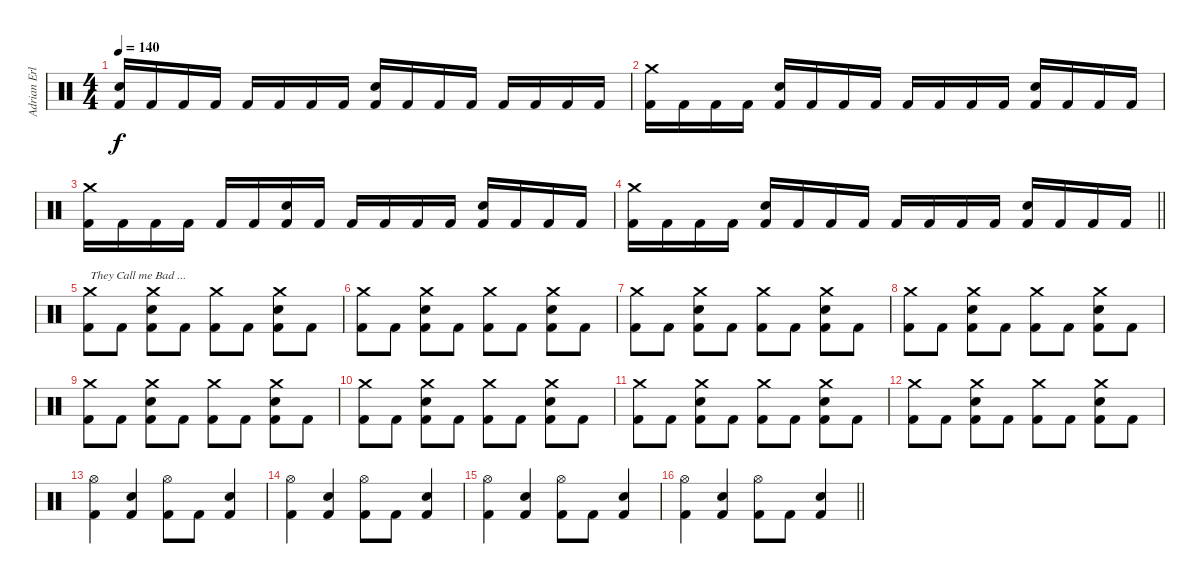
\track ("Adrian Erlandsson" "Adrian Erl") {instrument percussion}
\staff {score}
\articulation defaults
\ts (4 4)
\tempo 140
\clef neutral
\ks c
("Kick (hit) 2" "Electric Snare (hit)").16{dy f} "Kick (hit) 2".16 "Kick (hit) 2".16 "Kick (hit) 2".16 "Kick (hit) 2".16 "Kick (hit) 2".16 "Kick (hit) 2".16 "Kick (hit) 2".16 ("Kick (hit) 2" "Electric Snare (hit)").16 "Kick (hit) 2".16 "Kick (hit) 2".16 "Kick (hit) 2".16 "Kick (hit) 2".16 "Kick (hit) 2".16 "Kick (hit) 2".16 "Kick (hit) 2".16 |
("Kick (hit) 2" "Crash medium (hit)").16 "Kick (hit) 2".16 "Kick (hit) 2".16 "Kick (hit) 2".16 ("Kick (hit) 2" "Electric Snare (hit)").16 "Kick (hit) 2".16 "Kick (hit) 2".16 "Kick (hit) 2".16 "Kick (hit) 2".16 "Kick (hit) 2".16 "Kick (hit) 2".16 "Kick (hit) 2".16 ("Kick (hit) 2" "Electric Snare (hit)").16 "Kick (hit) 2".16 "Kick (hit) 2".16 "Kick (hit) 2".16 |
("Kick (hit) 2" "Crash medium (hit)").16 "Kick (hit) 2".16 "Kick (hit) 2".16 "Kick (hit) 2".16 "Kick (hit) 2".16 "Kick (hit) 2".16 ("Kick (hit) 2" "Electric Snare (hit)").16 "Kick (hit) 2".16 "Kick (hit) 2".16 "Kick (hit) 2".16 "Kick (hit) 2".16 "Kick (hit) 2".16 ("Kick (hit) 2" "Electric Snare (hit)").16 "Kick (hit) 2".16 "Kick (hit) 2".16 "Kick (hit) 2".16 |
\barLineRight lightlight
("Kick (hit) 2" "Crash medium (hit)").16 "Kick (hit) 2".16 "Kick (hit) 2".16 "Kick (hit) 2".16 ("Kick (hit) 2" "Electric Snare (hit)").16 "Kick (hit) 2".16 "Kick (hit) 2".16 "Kick (hit) 2".16 "Kick (hit) 2".16 "Kick (hit) 2".16 "Kick (hit) 2".16 "Kick (hit) 2".16 ("Kick (hit) 2" "Electric Snare (hit)").16 "Kick (hit) 2".16 "Kick (hit) 2".16 "Kick (hit) 2".16 |
("Kick (hit) 2" "Crash medium (hit)").8{txt "They Call me Bad ..."} "Kick (hit) 2".8 ("Kick (hit) 2" "Crash medium (hit)" "Electric Snare (hit)").8 "Kick (hit) 2".8 ("Kick (hit) 2" "Crash medium (hit)").8 "Kick (hit) 2".8 ("Kick (hit) 2" "Crash medium (hit)" "Electric Snare (hit)").8 "Kick (hit) 2".8 |
("Kick (hit) 2" "Crash medium (hit)").8 "Kick (hit) 2".8 ("Kick (hit) 2" "Crash medium (hit)" "Electric Snare (hit)").8 "Kick (hit) 2".8 ("Kick (hit) 2" "Crash medium (hit)").8 "Kick (hit) 2".8 ("Kick (hit) 2" "Crash medium (hit)" "Electric Snare (hit)").8 "Kick (hit) 2".8 |
("Kick (hit) 2" "Crash medium (hit)").8 "Kick (hit) 2".8 ("Kick (hit) 2" "Crash medium (hit)" "Electric Snare (hit)").8 "Kick (hit) 2".8 ("Kick (hit) 2" "Crash medium (hit)").8 "Kick (hit) 2".8 ("Kick (hit) 2" "Crash medium (hit)" "Electric Snare (hit)").8 "Kick (hit) 2".8 |
("Kick (hit) 2" "Crash medium (hit)").8 "Kick (hit) 2".8 ("Kick (hit) 2" "Crash medium (hit)" "Electric Snare (hit)").8 "Kick (hit) 2".8 ("Kick (hit) 2" "Crash medium (hit)").8 "Kick (hit) 2".8 ("Kick (hit) 2" "Crash medium (hit)" "Electric Snare (hit)").8 "Kick (hit) 2".8 |
("Kick (hit) 2" "Crash medium (hit)").8 "Kick (hit) 2".8 ("Kick (hit) 2" "Crash medium (hit)" "Electric Snare (hit)").8 "Kick (hit) 2".8 ("Kick (hit) 2" "Crash medium (hit)").8 "Kick (hit) 2".8 ("Kick (hit) 2" "Crash medium (hit)" "Electric Snare (hit)").8 "Kick (hit) 2".8 |
("Kick (hit) 2" "Crash medium (hit)").8 "Kick (hit) 2".8 ("Kick (hit) 2" "Crash medium (hit)" "Electric Snare (hit)").8 "Kick (hit) 2".8 ("Kick (hit) 2" "Crash medium (hit)").8 "Kick (hit) 2".8 ("Kick (hit) 2" "Crash medium (hit)" "Electric Snare (hit)").8 "Kick (hit) 2".8 |
("Kick (hit) 2" "Crash medium (hit)").8 "Kick (hit) 2".8 ("Kick (hit) 2" "Crash medium (hit)" "Electric Snare (hit)").8 "Kick (hit) 2".8 ("Kick (hit) 2" "Crash medium (hit)").8 "Kick (hit) 2".8 ("Kick (hit) 2" "Crash medium (hit)" "Electric Snare (hit)").8 "Kick (hit) 2".8 |
("Kick (hit) 2" "Crash medium (hit)").8 "Kick (hit) 2".8 ("Kick (hit) 2" "Crash medium (hit)" "Electric Snare (hit)").8 "Kick (hit) 2".8 ("Kick (hit) 2" "Crash medium (hit)").8 "Kick (hit) 2".8 ("Kick (hit) 2" "Crash medium (hit)" "Electric Snare (hit)").8 "Kick (hit) 2".8 |
("Kick (hit) 2" "Hi-Hat (open)").4 ("Kick (hit) 2" "Electric Snare (hit)").4 ("Kick (hit) 2" "Hi-Hat (open)").8 "Kick (hit) 2".8 ("Kick (hit) 2" "Electric Snare (hit)").4 |
("Kick (hit) 2" "Hi-Hat (open)").4 ("Kick (hit) 2" "Electric Snare (hit)").4 ("Kick (hit) 2" "Hi-Hat (open)").8 "Kick (hit) 2".8 ("Kick (hit) 2" "Electric Snare (hit)").4 |
("Kick (hit) 2" "Hi-Hat (open)").4 ("Kick (hit) 2" "Electric Snare (hit)").4 ("Kick (hit) 2" "Hi-Hat (open)").8 "Kick (hit) 2".8 ("Kick (hit) 2" "Electric Snare (hit)").4 |
\barLineRight lightlight
("Kick (hit) 2" "Hi-Hat (open)").4 ("Kick (hit) 2" "Electric Snare (hit)").4 ("Kick (hit) 2" "Hi-Hat (open)").8 "Kick (hit) 2".8 ("Kick (hit) 2" "Electric Snare (hit)").4
